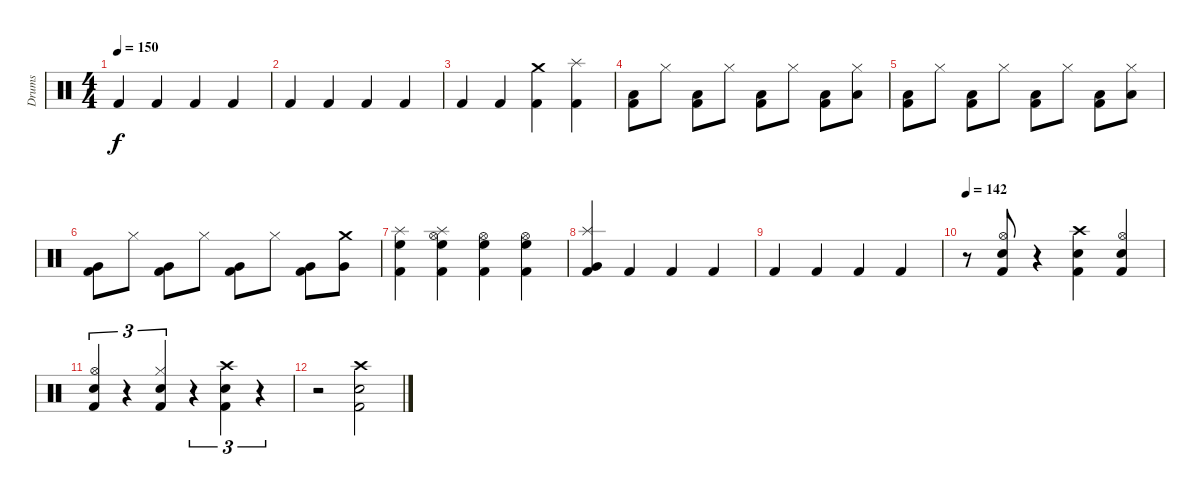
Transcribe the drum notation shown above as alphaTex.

\track ("Drums" "Drums") {instrument percussion}
\staff {score}
\articulation defaults
\ts (4 4)
\tempo 150
\clef neutral
\ks c "Kick (hit) 2".4{dy f} "Kick (hit) 2".4 "Kick (hit) 2".4 "Kick (hit) 2".4
|
"Kick (hit) 2".4 "Kick (hit) 2".4 "Kick (hit) 2".4 "Kick (hit) 2".4 |
"Kick (hit) 2".4 "Kick (hit) 2".4 ("Crash medium (hit)" "Kick (hit) 2").4 ("Splash (hit)" "Kick (hit) 2").4 |
("Low Tom (hit)" "Kick (hit) 2").8 "Hi-Hat (closed)".8 ("Low Tom (hit)" "Kick (hit) 2").8 "Hi-Hat (closed)".8 ("Low Tom (hit)" "Kick (hit) 2").8 "Hi-Hat (closed)".8 ("Low Tom (hit)" "Kick (hit) 2").8 ("Hi-Hat (closed)" "Low Tom (hit)").8 |
("Low Tom (hit)" "Kick (hit) 2").8 "Hi-Hat (closed)".8 ("Low Tom (hit)" "Kick (hit) 2").8 "Hi-Hat (closed)".8 ("Low Tom (hit)" "Kick (hit) 2").8 "Hi-Hat (closed)".8 ("Low Tom (hit)" "Kick (hit) 2").8 ("Hi-Hat (closed)" "Low Tom (hit)").8 |
("Very Low Tom (hit)" "Kick (hit) 2").8 "Hi-Hat (closed)".8 ("Very Low Tom (hit)" "Kick (hit) 2").8 "Hi-Hat (closed)".8 ("Very Low Tom (hit)" "Kick (hit) 2").8 "Hi-Hat (closed)".8 ("Very Low Tom (hit)" "Kick (hit) 2").8 ("Crash medium (hit)" "Very Low Tom (hit)").8 |
("Splash (hit)" "High Floor Tom (hit)" "Kick (hit) 2").4 ("Splash (hit)" "Hi-Hat (open)" "High Floor Tom (hit)" "Kick (hit) 2").4 ("Hi-Hat (open)" "High Floor Tom (hit)" "Kick (hit) 2").4 ("Hi-Hat (open)" "High Floor Tom (hit)" "Kick (hit) 2").4 |
("Splash (hit)" "Very Low Tom (hit)" "Kick (hit) 2").4 "Kick (hit) 2".4 "Kick (hit) 2".4 "Kick (hit) 2".4 |
"Kick (hit) 2".4 "Kick (hit) 2".4 "Kick (hit) 2".4 "Kick (hit) 2".4 |
\tempo 142
r.8 ("Hi-Hat (open)" "Snare (hit) 2" "Kick (hit) 2").8 r.4 ("Crash high (hit)" "Snare (hit) 2" "Kick (hit) 2").4 ("Hi-Hat (open)" "Snare (hit) 2" "Kick (hit) 2").4 |
("Hi-Hat (open)" "Snare (hit) 2" "Kick (hit) 2").4{tu (3 2)} r.4{tu (3 2)} ("Hi-Hat (closed)" "Snare (hit) 2" "Kick (hit) 2").4{tu (3 2)} r.4{tu (3 2)} ("Crash high (hit)" "Snare (hit) 2" "Kick (hit) 2").4{tu (3 2)} r.4{tu (3 2)} |
r.2 ("Crash high (hit)" "Snare (hit) 2" "Kick (hit) 2").2
